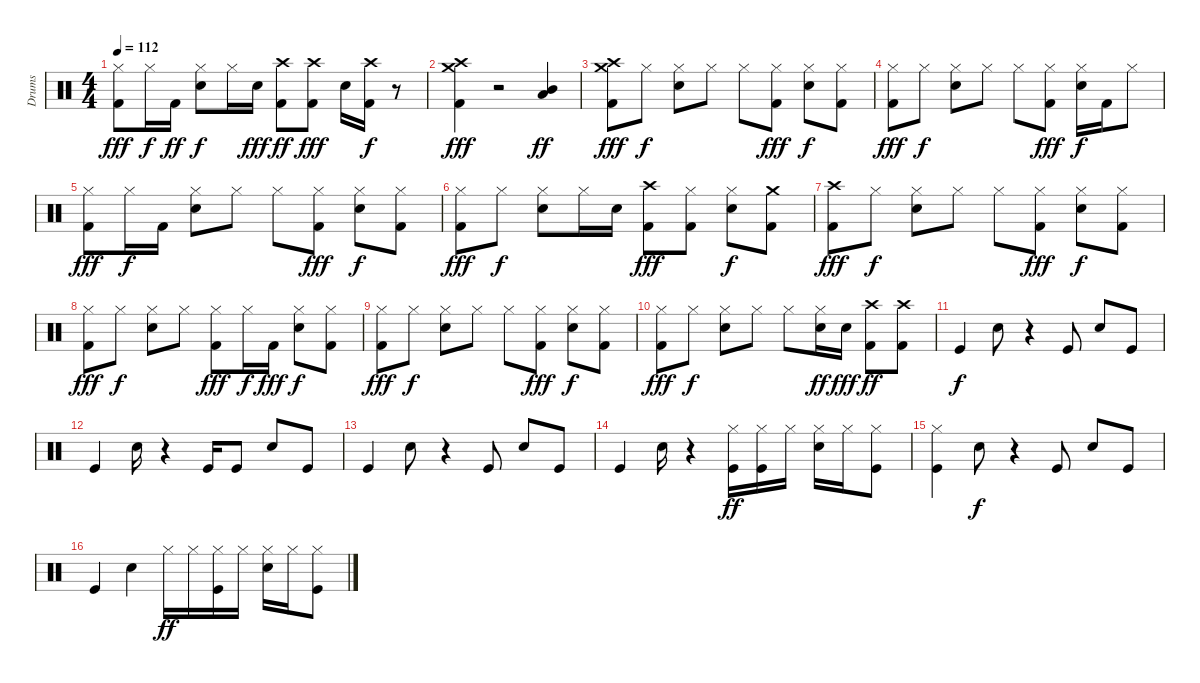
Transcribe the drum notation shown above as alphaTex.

\track ("Drums" "Drums") {instrument percussion}
\staff {score}
\articulation defaults
\ts (4 4)
\tempo 112
\clef neutral
\ks c
("Hi-Hat (closed)" "Kick (hit) 2").8{dy fff} "Hi-Hat (closed)".16{dy f} "Kick (hit) 2".16{dy ff} ("Hi-Hat (closed)" "Snare (hit) 2").8{dy f} "Hi-Hat (closed)".16 "Snare (hit) 2".16{dy fff} ("Crash high (hit)" "Kick (hit) 2").8{dy ff} ("Crash high (hit)" "Kick (hit) 2").8{dy fff} "Snare (hit) 2".16 ("Crash high (hit)" "Kick (hit) 2").16{dy f} r.8 |
("Crash high (hit)" "Crash medium (hit)" "Kick (hit) 2").4{dy fff} r.2 ("Mid Tom (hit)" "Low Floor Tom (hit)").4{dy ff} |
("Crash medium (hit)" "Kick (hit) 2" "Crash high (hit)").8{dy fff} "Hi-Hat (closed)".8{dy f} ("Hi-Hat (closed)" "Snare (hit) 2").8 "Hi-Hat (closed)".8 "Hi-Hat (closed)".8 ("Hi-Hat (closed)" "Kick (hit) 2").8{dy fff} ("Hi-Hat (closed)" "Snare (hit) 2").8{dy f} ("Hi-Hat (closed)" "Kick (hit) 2").8 |
("Hi-Hat (closed)" "Kick (hit) 2").8{dy fff} "Hi-Hat (closed)".8{dy f} ("Hi-Hat (closed)" "Snare (hit) 2").8 "Hi-Hat (closed)".8 "Hi-Hat (closed)".8 ("Hi-Hat (closed)" "Kick (hit) 2").8{dy fff} ("Hi-Hat (closed)" "Snare (hit) 2").16{dy f} "Kick (hit) 2".16 "Hi-Hat (closed)".8 |
("Hi-Hat (closed)" "Kick (hit) 2").8{dy fff} "Hi-Hat (closed)".16{dy f} "Kick (hit) 2".16 ("Hi-Hat (closed)" "Snare (hit) 2").8 "Hi-Hat (closed)".8 "Hi-Hat (closed)".8 ("Hi-Hat (closed)" "Kick (hit) 2").8{dy fff} ("Hi-Hat (closed)" "Snare (hit) 2").8{dy f} ("Kick (hit) 2" "Hi-Hat (closed)").8 |
("Hi-Hat (closed)" "Kick (hit) 2").8{dy fff} "Hi-Hat (closed)".8{dy f} ("Hi-Hat (closed)" "Snare (hit) 2").8 "Hi-Hat (closed)".16 "Snare (hit) 2".16 ("Crash high (hit)" "Kick (hit) 2").8{dy fff} ("Kick (hit) 2" "Hi-Hat (closed)").8 ("Hi-Hat (closed)" "Snare (hit) 2").8{dy f} ("Crash medium (hit)" "Kick (hit) 2").8 |
("Crash high (hit)" "Kick (hit) 2").8{dy fff} "Hi-Hat (closed)".8{dy f} ("Hi-Hat (closed)" "Snare (hit) 2").8 "Hi-Hat (closed)".8 "Hi-Hat (closed)".8 ("Hi-Hat (closed)" "Kick (hit) 2").8{dy fff} ("Hi-Hat (closed)" "Snare (hit) 2").8{dy f} ("Hi-Hat (closed)" "Kick (hit) 2").8 |
("Hi-Hat (closed)" "Kick (hit) 2").8{dy fff} "Hi-Hat (closed)".8{dy f} ("Hi-Hat (closed)" "Snare (hit) 2").8 "Hi-Hat (closed)".8 ("Kick (hit) 2" "Hi-Hat (closed)").8{dy fff} "Hi-Hat (closed)".16{dy f} "Kick (hit) 2".16{dy fff} ("Hi-Hat (closed)" "Snare (hit) 2").8{dy f} ("Kick (hit) 2" "Hi-Hat (closed)").8 |
("Hi-Hat (closed)" "Kick (hit) 2").8{dy fff} "Hi-Hat (closed)".8{dy f} ("Hi-Hat (closed)" "Snare (hit) 2").8 "Hi-Hat (closed)".8 "Hi-Hat (closed)".8 ("Hi-Hat (closed)" "Kick (hit) 2").8{dy fff} ("Hi-Hat (closed)" "Snare (hit) 2").8{dy f} ("Kick (hit) 2" "Hi-Hat (closed)").8 |
("Hi-Hat (closed)" "Kick (hit) 2").8{dy fff} "Hi-Hat (closed)".8{dy f} ("Hi-Hat (closed)" "Snare (hit) 2").8 "Hi-Hat (closed)".8 "Hi-Hat (closed)".8 ("Snare (hit) 2" "Hi-Hat (closed)").16{dy ff} "Snare (hit) 2".16{dy fff} ("Crash high (hit)" "Kick (hit) 2").8{dy ff} ("Crash high (hit)" "Kick (hit) 2").8 |
"Kick (hit)".4{dy f} "Snare (hit) 2".8 r.4 "Kick (hit)".8 "Snare (hit) 2".8 "Kick (hit)".8 |
"Kick (hit)".4 "Snare (hit) 2".16 r.4 "Kick (hit)".16 "Kick (hit)".8 "Snare (hit) 2".8 "Kick (hit)".8 |
"Kick (hit)".4 "Snare (hit) 2".8 r.4 "Kick (hit)".8 "Snare (hit) 2".8 "Kick (hit)".8 |
"Kick (hit)".4 "Snare (hit) 2".16 r.4 ("Kick (hit)" "Hi-Hat (closed)").16{dy ff} ("Kick (hit)" "Hi-Hat (closed)").16 "Hi-Hat (closed)".16 ("Hi-Hat (closed)" "Snare (hit) 2").16 "Hi-Hat (closed)".16 ("Hi-Hat (closed)" "Kick (hit)").8 |
("Hi-Hat (closed)" "Kick (hit)").4 "Snare (hit) 2".8{dy f} r.4 "Kick (hit)".8 "Snare (hit) 2".8 "Kick (hit)".8 |
"Kick (hit)".4 "Snare (hit) 2".4 "Hi-Hat (closed)".16{dy ff} "Hi-Hat (closed)".16 ("Hi-Hat (closed)" "Kick (hit)").16 "Hi-Hat (closed)".16 ("Hi-Hat (closed)" "Snare (hit) 2").16 "Hi-Hat (closed)".16 ("Hi-Hat (closed)" "Kick (hit)").8
